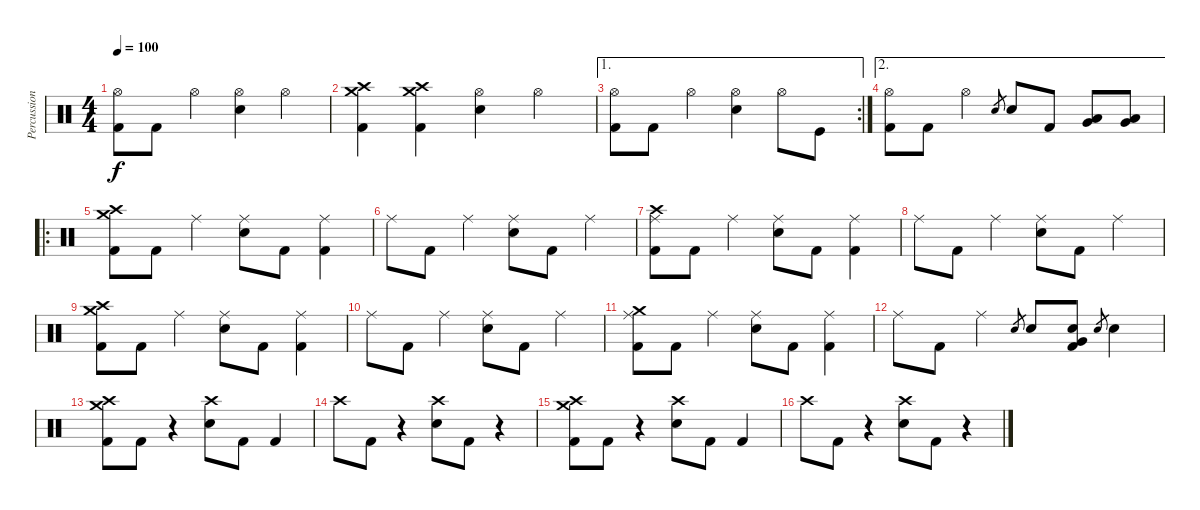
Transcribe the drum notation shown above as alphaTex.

\track ("Percussion" "Percussion") {instrument percussion}
\staff {score}
\articulation defaults
\ts (4 4)
\tempo 100
\clef neutral
\ks c
("Hi-Hat (open)" "Kick (hit) 2").8{dy f} "Kick (hit) 2".8 "Hi-Hat (open)".4 ("Hi-Hat (open)" "Snare (hit) 2").4 "Hi-Hat (open)".4 |
("Crash high (hit)" "Crash medium (hit)" "Kick (hit) 2").4 ("Crash high (hit)" "Crash medium (hit)" "Kick (hit) 2").4 ("Hi-Hat (open)" "Snare (hit) 2").4 "Hi-Hat (open)".4 |
\ae 1
\rc 2
("Hi-Hat (open)" "Kick (hit) 2").8 "Kick (hit) 2".8 "Hi-Hat (open)".4 ("Hi-Hat (open)" "Snare (hit) 2").4 "Hi-Hat (open)".8 "Kick (hit)".8 |
\ae 2
("Hi-Hat (open)" "Kick (hit) 2").8 "Kick (hit) 2".8 "Hi-Hat (open)".4 "Snare (hit) 2".8{gr} "Snare (hit) 2".8 "Kick (hit) 2".8 ("Low Tom (hit)" "Very Low Tom (hit)").8 ("Very Low Tom (hit)" "Low Floor Tom (hit)").8 |
\ro
("Crash high (hit)" "Crash medium (hit)" "Kick (hit) 2").8 "Kick (hit) 2".8 "Ride (middle)".4 ("Ride (middle)" "Snare (hit) 2").8 "Kick (hit) 2".8 ("Ride (middle)" "Kick (hit) 2").4 |
"Ride (middle)".8 "Kick (hit) 2".8 "Ride (middle)".4 ("Ride (middle)" "Snare (hit) 2").8 "Kick (hit) 2".8 "Ride (middle)".4 |
("Ride (middle)" "Crash high (hit)" "Kick (hit) 2").8 "Kick (hit) 2".8 "Ride (middle)".4 ("Ride (middle)" "Snare (hit) 2").8 "Kick (hit) 2".8 ("Ride (middle)" "Kick (hit) 2").4 |
"Ride (middle)".8 "Kick (hit) 2".8 "Ride (middle)".4 ("Ride (middle)" "Snare (hit) 2").8 "Kick (hit) 2".8 "Ride (middle)".4 |
("Crash high (hit)" "Crash medium (hit)" "Kick (hit) 2").8 "Kick (hit) 2".8 "Ride (middle)".4 ("Ride (middle)" "Snare (hit) 2").8 "Kick (hit) 2".8 ("Ride (middle)" "Kick (hit) 2").4 |
"Ride (middle)".8 "Kick (hit) 2".8 "Ride (middle)".4 ("Ride (middle)" "Snare (hit) 2").8 "Kick (hit) 2".8 "Ride (middle)".4 |
("Ride (middle)" "Crash medium (hit)" "Kick (hit) 2").8 "Kick (hit) 2".8 "Ride (middle)".4 ("Ride (middle)" "Snare (hit) 2").8 "Kick (hit) 2".8 ("Ride (middle)" "Kick (hit) 2").4 |
"Ride (middle)".8 "Kick (hit) 2".8 "Ride (middle)".4 "Snare (hit) 2".8{gr} "Snare (hit) 2".8 ("Snare (hit)" "Very Low Tom (hit)" "Kick (hit) 2").8 "Snare (hit) 2".8{gr} "Snare (hit) 2".4 |
("Crash high (hit)" "Crash medium (hit)" "Kick (hit) 2").8 "Kick (hit) 2".8 r.4 ("Crash high (hit)" "Electric Snare (hit)").8 "Kick (hit) 2".8 "Kick (hit) 2".4 |
"Crash high (hit)".8 "Kick (hit) 2".8 r.4 ("Crash high (hit)" "Electric Snare (hit)").8 "Kick (hit) 2".8 r.4 |
("Crash high (hit)" "Crash medium (hit)" "Kick (hit) 2").8 "Kick (hit) 2".8 r.4 ("Crash high (hit)" "Electric Snare (hit)").8 "Kick (hit) 2".8 "Kick (hit) 2".4 |
"Crash high (hit)".8 "Kick (hit) 2".8 r.4 ("Crash high (hit)" "Electric Snare (hit)").8 "Kick (hit) 2".8 r.4
